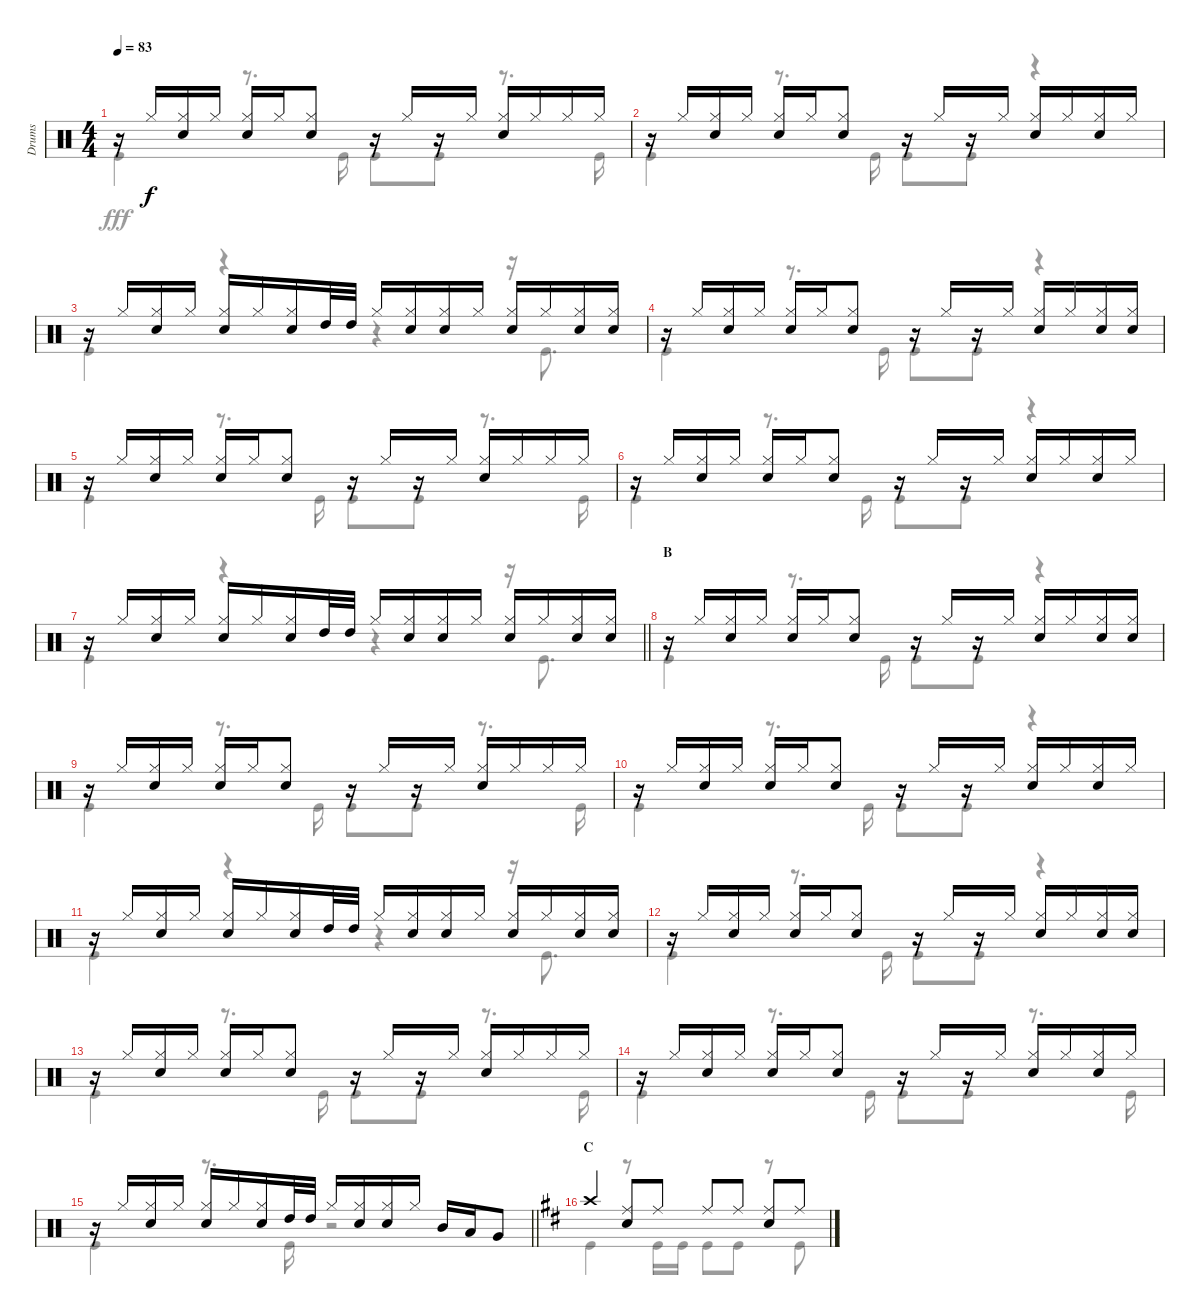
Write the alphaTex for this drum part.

\track ("Drums" "Drums") {instrument percussion}
\staff {score}
\articulation defaults
\voice
\ts (4 4)
\tempo 83
\clef neutral
\ks c
r.16{dy f} "Hi-Hat (closed)".16 ("Hi-Hat (closed)" "Snare (hit) 2").16 "Hi-Hat (closed)".16 ("Hi-Hat (closed)" "Snare (hit) 2").16 "Hi-Hat (closed)".16 ("Hi-Hat (closed)" "Snare (hit) 2").8 r.16 "Hi-Hat (closed)".16 r.16 "Hi-Hat (closed)".16 ("Hi-Hat (closed)" "Snare (hit) 2").16 "Hi-Hat (closed)".16 "Hi-Hat (closed)".16 "Hi-Hat (closed)".16 |
r.16 "Hi-Hat (closed)".16 ("Hi-Hat (closed)" "Snare (hit) 2").16 "Hi-Hat (closed)".16 ("Hi-Hat (closed)" "Snare (hit) 2").16 "Hi-Hat (closed)".16 ("Hi-Hat (closed)" "Snare (hit) 2").8 r.16 "Hi-Hat (closed)".16 r.16 "Hi-Hat (closed)".16 ("Hi-Hat (closed)" "Snare (hit) 2").16 "Hi-Hat (closed)".16 ("Hi-Hat (closed)" "Snare (hit) 2").16 "Hi-Hat (closed)".16 |
r.16 "Hi-Hat (closed)".16 ("Hi-Hat (closed)" "Snare (hit) 2").16 "Hi-Hat (closed)".16 ("Hi-Hat (closed)" "Snare (hit) 2").16 "Hi-Hat (closed)".16 ("Hi-Hat (closed)" "Snare (hit) 2").16 "High Tom (hit)".32 "High Tom (hit)".32 "Hi-Hat (closed)".16 ("Hi-Hat (closed)" "Snare (hit) 2").16 ("Hi-Hat (closed)" "Snare (hit) 2").16 "Hi-Hat (closed)".16 ("Hi-Hat (closed)" "Snare (hit) 2").16 "Hi-Hat (closed)".16 ("Hi-Hat (closed)" "Snare (hit) 2").16 ("Hi-Hat (closed)" "Snare (hit) 2").16 |
r.16 "Hi-Hat (closed)".16 ("Hi-Hat (closed)" "Snare (hit) 2").16 "Hi-Hat (closed)".16 ("Hi-Hat (closed)" "Snare (hit) 2").16 "Hi-Hat (closed)".16 ("Hi-Hat (closed)" "Snare (hit) 2").8 r.16 "Hi-Hat (closed)".16 r.16 "Hi-Hat (closed)".16 ("Hi-Hat (closed)" "Snare (hit) 2").16 "Hi-Hat (closed)".16 ("Hi-Hat (closed)" "Snare (hit) 2").16 ("Hi-Hat (closed)" "Snare (hit) 2").16 |
r.16 "Hi-Hat (closed)".16 ("Hi-Hat (closed)" "Snare (hit) 2").16 "Hi-Hat (closed)".16 ("Hi-Hat (closed)" "Snare (hit) 2").16 "Hi-Hat (closed)".16 ("Hi-Hat (closed)" "Snare (hit) 2").8 r.16 "Hi-Hat (closed)".16 r.16 "Hi-Hat (closed)".16 ("Hi-Hat (closed)" "Snare (hit) 2").16 "Hi-Hat (closed)".16 "Hi-Hat (closed)".16 "Hi-Hat (closed)".16 |
r.16 "Hi-Hat (closed)".16 ("Hi-Hat (closed)" "Snare (hit) 2").16 "Hi-Hat (closed)".16 ("Hi-Hat (closed)" "Snare (hit) 2").16 "Hi-Hat (closed)".16 ("Hi-Hat (closed)" "Snare (hit) 2").8 r.16 "Hi-Hat (closed)".16 r.16 "Hi-Hat (closed)".16 ("Hi-Hat (closed)" "Snare (hit) 2").16 "Hi-Hat (closed)".16 ("Hi-Hat (closed)" "Snare (hit) 2").16 "Hi-Hat (closed)".16 |
\barLineRight lightlight
r.16 "Hi-Hat (closed)".16 ("Hi-Hat (closed)" "Snare (hit) 2").16 "Hi-Hat (closed)".16 ("Hi-Hat (closed)" "Snare (hit) 2").16 "Hi-Hat (closed)".16 ("Hi-Hat (closed)" "Snare (hit) 2").16 "High Tom (hit)".32 "High Tom (hit)".32 "Hi-Hat (closed)".16 ("Hi-Hat (closed)" "Snare (hit) 2").16 ("Hi-Hat (closed)" "Snare (hit) 2").16 "Hi-Hat (closed)".16 ("Hi-Hat (closed)" "Snare (hit) 2").16 "Hi-Hat (closed)".16 ("Hi-Hat (closed)" "Snare (hit) 2").16 ("Hi-Hat (closed)" "Snare (hit) 2").16 |
\section ("" "B")
r.16 "Hi-Hat (closed)".16 ("Hi-Hat (closed)" "Snare (hit) 2").16 "Hi-Hat (closed)".16 ("Hi-Hat (closed)" "Snare (hit) 2").16 "Hi-Hat (closed)".16 ("Hi-Hat (closed)" "Snare (hit) 2").8 r.16 "Hi-Hat (closed)".16 r.16 "Hi-Hat (closed)".16 ("Hi-Hat (closed)" "Snare (hit) 2").16 "Hi-Hat (closed)".16 ("Hi-Hat (closed)" "Snare (hit) 2").16 ("Hi-Hat (closed)" "Snare (hit) 2").16 |
r.16 "Hi-Hat (closed)".16 ("Hi-Hat (closed)" "Snare (hit) 2").16 "Hi-Hat (closed)".16 ("Hi-Hat (closed)" "Snare (hit) 2").16 "Hi-Hat (closed)".16 ("Hi-Hat (closed)" "Snare (hit) 2").8 r.16 "Hi-Hat (closed)".16 r.16 "Hi-Hat (closed)".16 ("Hi-Hat (closed)" "Snare (hit) 2").16 "Hi-Hat (closed)".16 "Hi-Hat (closed)".16 "Hi-Hat (closed)".16 |
r.16 "Hi-Hat (closed)".16 ("Hi-Hat (closed)" "Snare (hit) 2").16 "Hi-Hat (closed)".16 ("Hi-Hat (closed)" "Snare (hit) 2").16 "Hi-Hat (closed)".16 ("Hi-Hat (closed)" "Snare (hit) 2").8 r.16 "Hi-Hat (closed)".16 r.16 "Hi-Hat (closed)".16 ("Hi-Hat (closed)" "Snare (hit) 2").16 "Hi-Hat (closed)".16 ("Hi-Hat (closed)" "Snare (hit) 2").16 "Hi-Hat (closed)".16 |
r.16 "Hi-Hat (closed)".16 ("Hi-Hat (closed)" "Snare (hit) 2").16 "Hi-Hat (closed)".16 ("Hi-Hat (closed)" "Snare (hit) 2").16 "Hi-Hat (closed)".16 ("Hi-Hat (closed)" "Snare (hit) 2").16 "High Tom (hit)".32 "High Tom (hit)".32 "Hi-Hat (closed)".16 ("Hi-Hat (closed)" "Snare (hit) 2").16 ("Hi-Hat (closed)" "Snare (hit) 2").16 "Hi-Hat (closed)".16 ("Hi-Hat (closed)" "Snare (hit) 2").16 "Hi-Hat (closed)".16 ("Hi-Hat (closed)" "Snare (hit) 2").16 ("Hi-Hat (closed)" "Snare (hit) 2").16 |
r.16 "Hi-Hat (closed)".16 ("Hi-Hat (closed)" "Snare (hit) 2").16 "Hi-Hat (closed)".16 ("Hi-Hat (closed)" "Snare (hit) 2").16 "Hi-Hat (closed)".16 ("Hi-Hat (closed)" "Snare (hit) 2").8 r.16 "Hi-Hat (closed)".16 r.16 "Hi-Hat (closed)".16 ("Hi-Hat (closed)" "Snare (hit) 2").16 "Hi-Hat (closed)".16 ("Hi-Hat (closed)" "Snare (hit) 2").16 ("Hi-Hat (closed)" "Snare (hit) 2").16 |
r.16 "Hi-Hat (closed)".16 ("Hi-Hat (closed)" "Snare (hit) 2").16 "Hi-Hat (closed)".16 ("Hi-Hat (closed)" "Snare (hit) 2").16 "Hi-Hat (closed)".16 ("Hi-Hat (closed)" "Snare (hit) 2").8 r.16 "Hi-Hat (closed)".16 r.16 "Hi-Hat (closed)".16 ("Hi-Hat (closed)" "Snare (hit) 2").16 "Hi-Hat (closed)".16 "Hi-Hat (closed)".16 "Hi-Hat (closed)".16 |
r.16 "Hi-Hat (closed)".16 ("Hi-Hat (closed)" "Snare (hit) 2").16 "Hi-Hat (closed)".16 ("Hi-Hat (closed)" "Snare (hit) 2").16 "Hi-Hat (closed)".16 ("Hi-Hat (closed)" "Snare (hit) 2").8 r.16 "Hi-Hat (closed)".16 r.16 "Hi-Hat (closed)".16 ("Hi-Hat (closed)" "Snare (hit) 2").16 "Hi-Hat (closed)".16 ("Hi-Hat (closed)" "Snare (hit) 2").16 "Hi-Hat (closed)".16 |
\barLineRight lightlight
r.16 "Hi-Hat (closed)".16 ("Hi-Hat (closed)" "Snare (hit) 2").16 "Hi-Hat (closed)".16 ("Hi-Hat (closed)" "Snare (hit) 2").16 "Hi-Hat (closed)".16 ("Hi-Hat (closed)" "Snare (hit) 2").16 "High Tom (hit)".32 "High Tom (hit)".32 "Hi-Hat (closed)".16 ("Hi-Hat (closed)" "Snare (hit) 2").16 ("Hi-Hat (closed)" "Snare (hit) 2").16 "Hi-Hat (closed)".16 "Mid Tom (hit)".16 "Low Tom (hit)".16 "Very Low Tom (hit)".8 |
\section ("" "C")
\ks d "Crash high (hit)".4
("Ride (middle)" "Snare (hit) 2").8 "Ride (middle)".8 "Ride (middle)".8 "Ride (middle)".8 ("Ride (middle)" "Snare (hit) 2").8 "Ride (middle)".8
\voice
\clef neutral
\ottava regular
\simile none
\ks c "Kick (hit)".4{dy fff}
r.8{d} "Kick (hit)".16 "Kick (hit)".8 "Kick (hit)".8 r.8{d} "Kick (hit)".16 |
"Kick (hit)".4 r.8{d} "Kick (hit)".16 "Kick (hit)".8 "Kick (hit)".8 r.4 |
"Kick (hit)".4 r.4 r.4 r.16 "Kick (hit)".8{d} |
"Kick (hit)".4 r.8{d} "Kick (hit)".16 "Kick (hit)".8 "Kick (hit)".8 r.4 |
"Kick (hit)".4 r.8{d} "Kick (hit)".16 "Kick (hit)".8 "Kick (hit)".8 r.8{d} "Kick (hit)".16 |
"Kick (hit)".4 r.8{d} "Kick (hit)".16 "Kick (hit)".8 "Kick (hit)".8 r.4 |
\barLineRight lightlight "Kick (hit)".4
r.4 r.4 r.16 "Kick (hit)".8{d} |
"Kick (hit)".4 r.8{d} "Kick (hit)".16 "Kick (hit)".8 "Kick (hit)".8 r.4 |
"Kick (hit)".4 r.8{d} "Kick (hit)".16 "Kick (hit)".8 "Kick (hit)".8 r.8{d} "Kick (hit)".16 |
"Kick (hit)".4 r.8{d} "Kick (hit)".16 "Kick (hit)".8 "Kick (hit)".8 r.4 |
"Kick (hit)".4 r.4 r.4 r.16 "Kick (hit)".8{d} |
"Kick (hit)".4 r.8{d} "Kick (hit)".16 "Kick (hit)".8 "Kick (hit)".8 r.4 |
"Kick (hit)".4 r.8{d} "Kick (hit)".16 "Kick (hit)".8 "Kick (hit)".8 r.8{d} "Kick (hit)".16 |
"Kick (hit)".4 r.8{d} "Kick (hit)".16 "Kick (hit)".8 "Kick (hit)".8 r.8{d} "Kick (hit)".16 |
\barLineRight lightlight "Kick (hit)".4
r.8{d} "Kick (hit)".16 r.2 |
\ks d "Kick (hit)".4
r.8 "Kick (hit)".16 "Kick (hit)".16 "Kick (hit)".8 "Kick (hit)".8 r.8 "Kick (hit)".8
